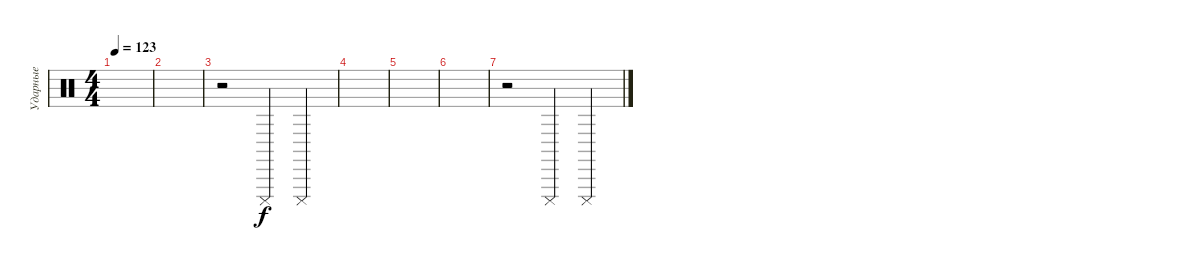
\track ("Ударные" "Ударные") {instrument percussion}
\staff {score}
\articulation defaults
\ts (4 4)
\tempo 123
\clef neutral
\ks c
|
|
r.2 "Cuica (mute)".4 "Cuica (mute)".4 |
|
|
|
r.2 "Cuica (mute)".4 "Cuica (mute)".4
